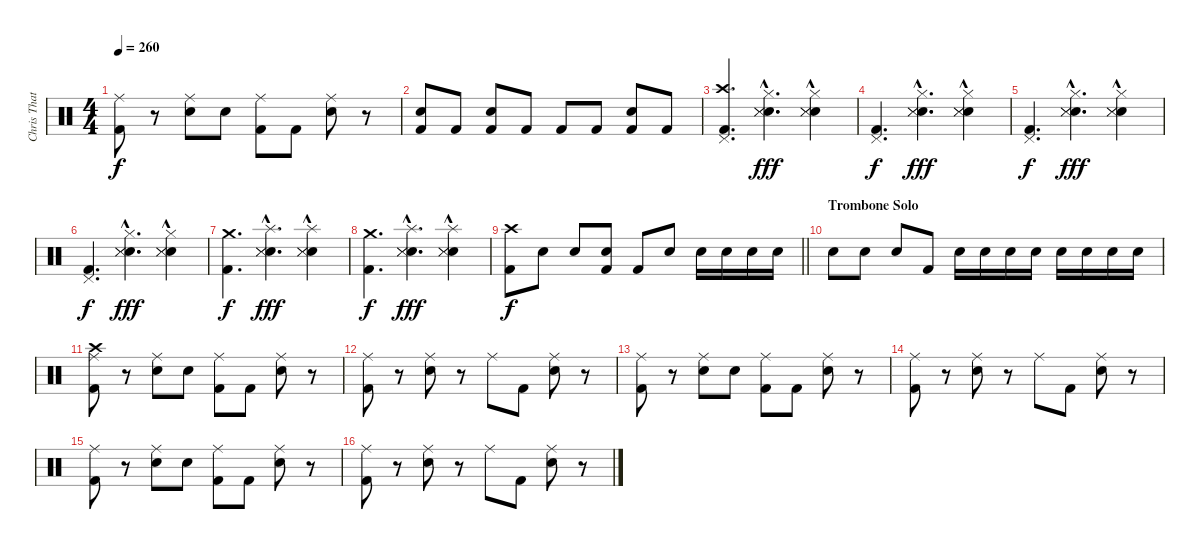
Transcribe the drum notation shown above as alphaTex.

\track ("Chris Thatcher    - Drums" "Chris That") {instrument percussion}
\staff {score}
\articulation defaults
\ts (4 4)
\tempo 260
\clef neutral
\ks c
("Ride (middle)" "Kick (hit) 2").8{dy f} r.8 ("Ride (middle)" "Electric Snare (hit)").8 "Electric Snare (hit)".8 ("Ride (middle)" "Kick (hit) 2").8 "Kick (hit) 2".8 ("Ride (middle)" "Electric Snare (hit)").8 r.8 |
("Kick (hit) 2" "Electric Snare (hit)").8 "Kick (hit) 2".8 ("Kick (hit) 2" "Electric Snare (hit)").8 "Kick (hit) 2".8 "Kick (hit) 2".8 "Kick (hit) 2".8 ("Kick (hit) 2" "Electric Snare (hit)").8 "Kick (hit) 2".8 |
("Crash high (hit)" "Pedal Hi-Hat (hit)" "Kick (hit) 2").4{d} ("Hi-Hat (closed)" "Electric Snare (hit)" "Snare (side stick) 3"{hac} "Snare (side stick) 3"{hac}).4{d dy fff} ("Hi-Hat (closed)" "Electric Snare (hit)" "Snare (side stick) 3"{hac} "Snare (side stick) 3"{hac}).4 |
("Pedal Hi-Hat (hit)" "Kick (hit) 2").4{d dy f} ("Hi-Hat (closed)" "Electric Snare (hit)" "Snare (side stick) 3"{hac} "Snare (side stick) 3"{hac}).4{d dy fff} ("Hi-Hat (closed)" "Electric Snare (hit)" "Snare (side stick) 3"{hac} "Snare (side stick) 3"{hac}).4 |
("Pedal Hi-Hat (hit)" "Kick (hit) 2").4{d dy f} ("Hi-Hat (closed)" "Electric Snare (hit)" "Snare (side stick) 3"{hac} "Snare (side stick) 3"{hac}).4{d dy fff} ("Hi-Hat (closed)" "Electric Snare (hit)" "Snare (side stick) 3"{hac} "Snare (side stick) 3"{hac}).4 |
("Pedal Hi-Hat (hit)" "Kick (hit) 2").4{d dy f} ("Hi-Hat (closed)" "Electric Snare (hit)" "Snare (side stick) 3"{hac} "Snare (side stick) 3"{hac}).4{d dy fff} ("Hi-Hat (closed)" "Electric Snare (hit)" "Snare (side stick) 3"{hac} "Snare (side stick) 3"{hac}).4 |
("Crash medium (hit)" "Kick (hit) 2").4{d dy f} ("Splash (hit)" "Electric Snare (hit)" "Snare (side stick) 3"{hac} "Snare (side stick) 3"{hac}).4{d dy fff} ("Splash (hit)" "Electric Snare (hit)" "Snare (side stick) 3"{hac} "Snare (side stick) 3"{hac}).4 |
("Crash medium (hit)" "Kick (hit) 2").4{d dy f} ("Splash (hit)" "Electric Snare (hit)" "Snare (side stick) 3"{hac} "Snare (side stick) 3"{hac}).4{d dy fff} ("Splash (hit)" "Electric Snare (hit)" "Snare (side stick) 3"{hac} "Snare (side stick) 3"{hac}).4 |
\barLineRight lightlight
("Crash high (hit)" "Kick (hit) 2").8{dy f} "Electric Snare (hit)".8 "Electric Snare (hit)".8 ("Kick (hit) 2" "Electric Snare (hit)").8 "Kick (hit) 2".8 "Electric Snare (hit)".8 "Electric Snare (hit)".16 "Electric Snare (hit)".16 "Electric Snare (hit)".16 "Electric Snare (hit)".16 |
\section ("" "Trombone Solo")
"Electric Snare (hit)".8 "Electric Snare (hit)".8 "Electric Snare (hit)".8 "Kick (hit) 2".8 "Electric Snare (hit)".16 "Electric Snare (hit)".16 "Electric Snare (hit)".16 "Electric Snare (hit)".16 "Electric Snare (hit)".16 "Electric Snare (hit)".16 "Electric Snare (hit)".16 "Electric Snare (hit)".16 |
("Crash high (hit)" "Ride (middle)" "Kick (hit) 2").8 r.8 ("Ride (middle)" "Electric Snare (hit)").8 "Electric Snare (hit)".8 ("Ride (middle)" "Kick (hit) 2").8 "Kick (hit) 2".8 ("Ride (middle)" "Electric Snare (hit)").8 r.8 |
("Ride (middle)" "Kick (hit) 2").8 r.8 ("Ride (middle)" "Electric Snare (hit)").8 r.8 "Ride (middle)".8 "Kick (hit) 2".8 ("Ride (middle)" "Electric Snare (hit)").8 r.8 |
("Ride (middle)" "Kick (hit) 2").8 r.8 ("Ride (middle)" "Electric Snare (hit)").8 "Electric Snare (hit)".8 ("Ride (middle)" "Kick (hit) 2").8 "Kick (hit) 2".8 ("Ride (middle)" "Electric Snare (hit)").8 r.8 |
("Ride (middle)" "Kick (hit) 2").8 r.8 ("Ride (middle)" "Electric Snare (hit)").8 r.8 "Ride (middle)".8 "Kick (hit) 2".8 ("Ride (middle)" "Electric Snare (hit)").8 r.8 |
("Ride (middle)" "Kick (hit) 2").8 r.8 ("Ride (middle)" "Electric Snare (hit)").8 "Electric Snare (hit)".8 ("Ride (middle)" "Kick (hit) 2").8 "Kick (hit) 2".8 ("Ride (middle)" "Electric Snare (hit)").8 r.8 |
("Ride (middle)" "Kick (hit) 2").8 r.8 ("Ride (middle)" "Electric Snare (hit)").8 r.8 "Ride (middle)".8 "Kick (hit) 2".8 ("Ride (middle)" "Electric Snare (hit)").8 r.8
